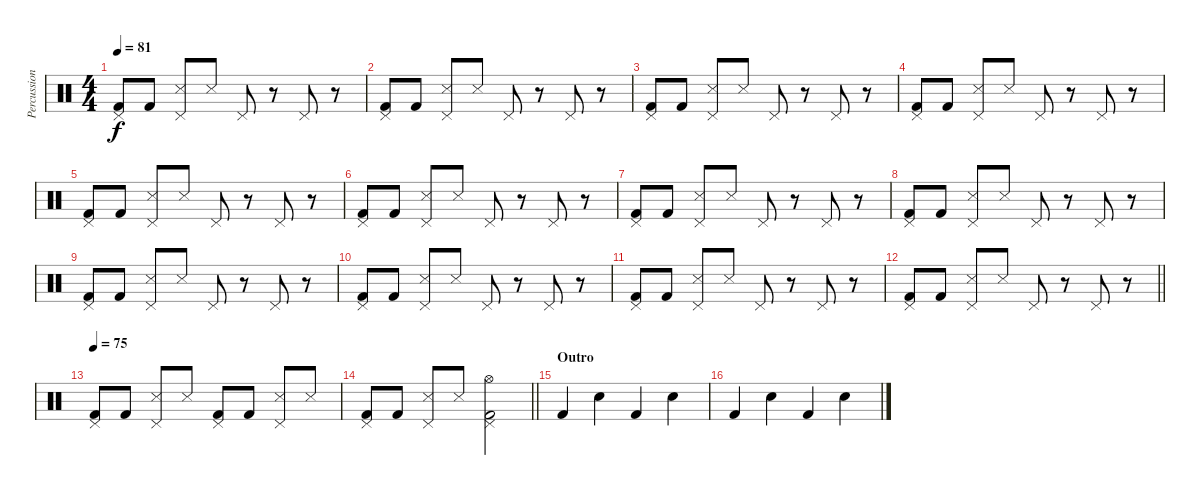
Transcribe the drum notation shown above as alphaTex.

\track ("Percussion" "Percussion") {instrument percussion}
\staff {score}
\articulation defaults
\ts (4 4)
\tempo 81
\clef neutral
\ks c
("Pedal Hi-Hat (hit)" "Kick (hit) 2").8{dy f} "Kick (hit) 2".8 ("Pedal Hi-Hat (hit)" "Snare (side stick) 3").8 "Snare (side stick) 3".8 "Pedal Hi-Hat (hit)".8 r.8 "Pedal Hi-Hat (hit)".8 r.8 |
("Pedal Hi-Hat (hit)" "Kick (hit) 2").8 "Kick (hit) 2".8 ("Pedal Hi-Hat (hit)" "Snare (side stick) 3").8 "Snare (side stick) 3".8 "Pedal Hi-Hat (hit)".8 r.8 "Pedal Hi-Hat (hit)".8 r.8 |
("Pedal Hi-Hat (hit)" "Kick (hit) 2").8 "Kick (hit) 2".8 ("Pedal Hi-Hat (hit)" "Snare (side stick) 3").8 "Snare (side stick) 3".8 "Pedal Hi-Hat (hit)".8 r.8 "Pedal Hi-Hat (hit)".8 r.8 |
("Pedal Hi-Hat (hit)" "Kick (hit) 2").8 "Kick (hit) 2".8 ("Pedal Hi-Hat (hit)" "Snare (side stick) 3").8 "Snare (side stick) 3".8 "Pedal Hi-Hat (hit)".8 r.8 "Pedal Hi-Hat (hit)".8 r.8 |
("Pedal Hi-Hat (hit)" "Kick (hit) 2").8 "Kick (hit) 2".8 ("Pedal Hi-Hat (hit)" "Snare (side stick) 3").8 "Snare (side stick) 3".8 "Pedal Hi-Hat (hit)".8 r.8 "Pedal Hi-Hat (hit)".8 r.8 |
("Pedal Hi-Hat (hit)" "Kick (hit) 2").8 "Kick (hit) 2".8 ("Pedal Hi-Hat (hit)" "Snare (side stick) 3").8 "Snare (side stick) 3".8 "Pedal Hi-Hat (hit)".8 r.8 "Pedal Hi-Hat (hit)".8 r.8 |
("Pedal Hi-Hat (hit)" "Kick (hit) 2").8 "Kick (hit) 2".8 ("Pedal Hi-Hat (hit)" "Snare (side stick) 3").8 "Snare (side stick) 3".8 "Pedal Hi-Hat (hit)".8 r.8 "Pedal Hi-Hat (hit)".8 r.8 |
("Pedal Hi-Hat (hit)" "Kick (hit) 2").8 "Kick (hit) 2".8 ("Pedal Hi-Hat (hit)" "Snare (side stick) 3").8 "Snare (side stick) 3".8 "Pedal Hi-Hat (hit)".8 r.8 "Pedal Hi-Hat (hit)".8 r.8 |
("Pedal Hi-Hat (hit)" "Kick (hit) 2").8 "Kick (hit) 2".8 ("Pedal Hi-Hat (hit)" "Snare (side stick) 3").8 "Snare (side stick) 3".8 "Pedal Hi-Hat (hit)".8 r.8 "Pedal Hi-Hat (hit)".8 r.8 |
("Pedal Hi-Hat (hit)" "Kick (hit) 2").8 "Kick (hit) 2".8 ("Pedal Hi-Hat (hit)" "Snare (side stick) 3").8 "Snare (side stick) 3".8 "Pedal Hi-Hat (hit)".8 r.8 "Pedal Hi-Hat (hit)".8 r.8 |
("Pedal Hi-Hat (hit)" "Kick (hit) 2").8 "Kick (hit) 2".8 ("Pedal Hi-Hat (hit)" "Snare (side stick) 3").8 "Snare (side stick) 3".8 "Pedal Hi-Hat (hit)".8 r.8 "Pedal Hi-Hat (hit)".8 r.8 |
\barLineRight lightlight
("Pedal Hi-Hat (hit)" "Kick (hit) 2").8 "Kick (hit) 2".8 ("Pedal Hi-Hat (hit)" "Snare (side stick) 3").8 "Snare (side stick) 3".8 "Pedal Hi-Hat (hit)".8 r.8 "Pedal Hi-Hat (hit)".8 r.8 |
\tempo 75
("Pedal Hi-Hat (hit)" "Kick (hit) 2").8 "Kick (hit) 2".8 ("Pedal Hi-Hat (hit)" "Snare (side stick) 3").8 "Snare (side stick) 3".8 ("Pedal Hi-Hat (hit)" "Kick (hit) 2").8 "Kick (hit) 2".8 ("Pedal Hi-Hat (hit)" "Snare (side stick) 3").8 "Snare (side stick) 3".8 |
\barLineRight lightlight
("Pedal Hi-Hat (hit)" "Kick (hit) 2").8 "Kick (hit) 2".8 ("Pedal Hi-Hat (hit)" "Snare (side stick) 3").8 "Snare (side stick) 3".8 ("Pedal Hi-Hat (hit)" "Hi-Hat (open)" "Kick (hit) 2").2 |
\section ("" "Outro")
"Kick (hit) 2".4 "Electric Snare (hit)".4 "Kick (hit) 2".4 "Electric Snare (hit)".4 |
"Kick (hit) 2".4 "Electric Snare (hit)".4 "Kick (hit) 2".4 "Electric Snare (hit)".4
